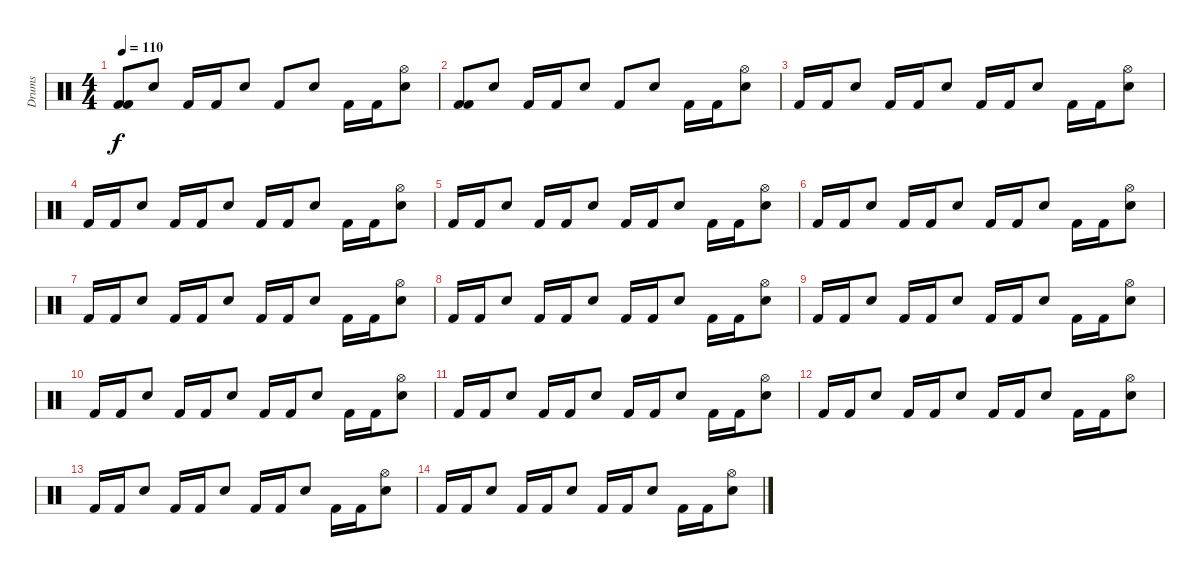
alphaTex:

\track ("Drums" "Drums") {instrument percussion}
\staff {score}
\articulation defaults
\ts (4 4)
\tempo 110
\clef neutral
\ks c
("Kick (hit) 2" "Kick (hit) 2").8{dy f} "Snare (hit) 2".8 "Kick (hit) 2".16 "Kick (hit) 2".16 "Snare (hit) 2".8 "Kick (hit) 2".8 "Snare (hit) 2".8 "Kick (hit) 2".16 "Kick (hit) 2".16 ("Snare (hit) 2" "Hi-Hat (open)").8 |
("Kick (hit) 2" "Kick (hit) 2").8 "Snare (hit) 2".8 "Kick (hit) 2".16 "Kick (hit) 2".16 "Snare (hit) 2".8 "Kick (hit) 2".8 "Snare (hit) 2".8 "Kick (hit) 2".16 "Kick (hit) 2".16 ("Snare (hit) 2" "Hi-Hat (open)").8 |
"Kick (hit) 2".16 "Kick (hit) 2".16 "Snare (hit) 2".8 "Kick (hit) 2".16 "Kick (hit) 2".16 "Snare (hit) 2".8 "Kick (hit) 2".16 "Kick (hit) 2".16 "Snare (hit) 2".8 "Kick (hit) 2".16 "Kick (hit) 2".16 ("Snare (hit) 2" "Hi-Hat (open)").8 |
"Kick (hit) 2".16 "Kick (hit) 2".16 "Snare (hit) 2".8 "Kick (hit) 2".16 "Kick (hit) 2".16 "Snare (hit) 2".8 "Kick (hit) 2".16 "Kick (hit) 2".16 "Snare (hit) 2".8 "Kick (hit) 2".16 "Kick (hit) 2".16 ("Snare (hit) 2" "Hi-Hat (open)").8 |
"Kick (hit) 2".16 "Kick (hit) 2".16 "Snare (hit) 2".8 "Kick (hit) 2".16 "Kick (hit) 2".16 "Snare (hit) 2".8 "Kick (hit) 2".16 "Kick (hit) 2".16 "Snare (hit) 2".8 "Kick (hit) 2".16 "Kick (hit) 2".16 ("Snare (hit) 2" "Hi-Hat (open)").8 |
"Kick (hit) 2".16 "Kick (hit) 2".16 "Snare (hit) 2".8 "Kick (hit) 2".16 "Kick (hit) 2".16 "Snare (hit) 2".8 "Kick (hit) 2".16 "Kick (hit) 2".16 "Snare (hit) 2".8 "Kick (hit) 2".16 "Kick (hit) 2".16 ("Snare (hit) 2" "Hi-Hat (open)").8 |
"Kick (hit) 2".16 "Kick (hit) 2".16 "Snare (hit) 2".8 "Kick (hit) 2".16 "Kick (hit) 2".16 "Snare (hit) 2".8 "Kick (hit) 2".16 "Kick (hit) 2".16 "Snare (hit) 2".8 "Kick (hit) 2".16 "Kick (hit) 2".16 ("Snare (hit) 2" "Hi-Hat (open)").8 |
"Kick (hit) 2".16 "Kick (hit) 2".16 "Snare (hit) 2".8 "Kick (hit) 2".16 "Kick (hit) 2".16 "Snare (hit) 2".8 "Kick (hit) 2".16 "Kick (hit) 2".16 "Snare (hit) 2".8 "Kick (hit) 2".16 "Kick (hit) 2".16 ("Snare (hit) 2" "Hi-Hat (open)").8 |
"Kick (hit) 2".16 "Kick (hit) 2".16 "Snare (hit) 2".8 "Kick (hit) 2".16 "Kick (hit) 2".16 "Snare (hit) 2".8 "Kick (hit) 2".16 "Kick (hit) 2".16 "Snare (hit) 2".8 "Kick (hit) 2".16 "Kick (hit) 2".16 ("Snare (hit) 2" "Hi-Hat (open)").8 |
"Kick (hit) 2".16 "Kick (hit) 2".16 "Snare (hit) 2".8 "Kick (hit) 2".16 "Kick (hit) 2".16 "Snare (hit) 2".8 "Kick (hit) 2".16 "Kick (hit) 2".16 "Snare (hit) 2".8 "Kick (hit) 2".16 "Kick (hit) 2".16 ("Snare (hit) 2" "Hi-Hat (open)").8 |
"Kick (hit) 2".16 "Kick (hit) 2".16 "Snare (hit) 2".8 "Kick (hit) 2".16 "Kick (hit) 2".16 "Snare (hit) 2".8 "Kick (hit) 2".16 "Kick (hit) 2".16 "Snare (hit) 2".8 "Kick (hit) 2".16 "Kick (hit) 2".16 ("Snare (hit) 2" "Hi-Hat (open)").8 |
"Kick (hit) 2".16 "Kick (hit) 2".16 "Snare (hit) 2".8 "Kick (hit) 2".16 "Kick (hit) 2".16 "Snare (hit) 2".8 "Kick (hit) 2".16 "Kick (hit) 2".16 "Snare (hit) 2".8 "Kick (hit) 2".16 "Kick (hit) 2".16 ("Snare (hit) 2" "Hi-Hat (open)").8 |
"Kick (hit) 2".16 "Kick (hit) 2".16 "Snare (hit) 2".8 "Kick (hit) 2".16 "Kick (hit) 2".16 "Snare (hit) 2".8 "Kick (hit) 2".16 "Kick (hit) 2".16 "Snare (hit) 2".8 "Kick (hit) 2".16 "Kick (hit) 2".16 ("Snare (hit) 2" "Hi-Hat (open)").8 |
"Kick (hit) 2".16 "Kick (hit) 2".16 "Snare (hit) 2".8 "Kick (hit) 2".16 "Kick (hit) 2".16 "Snare (hit) 2".8 "Kick (hit) 2".16 "Kick (hit) 2".16 "Snare (hit) 2".8 "Kick (hit) 2".16 "Kick (hit) 2".16 ("Snare (hit) 2" "Hi-Hat (open)").8
